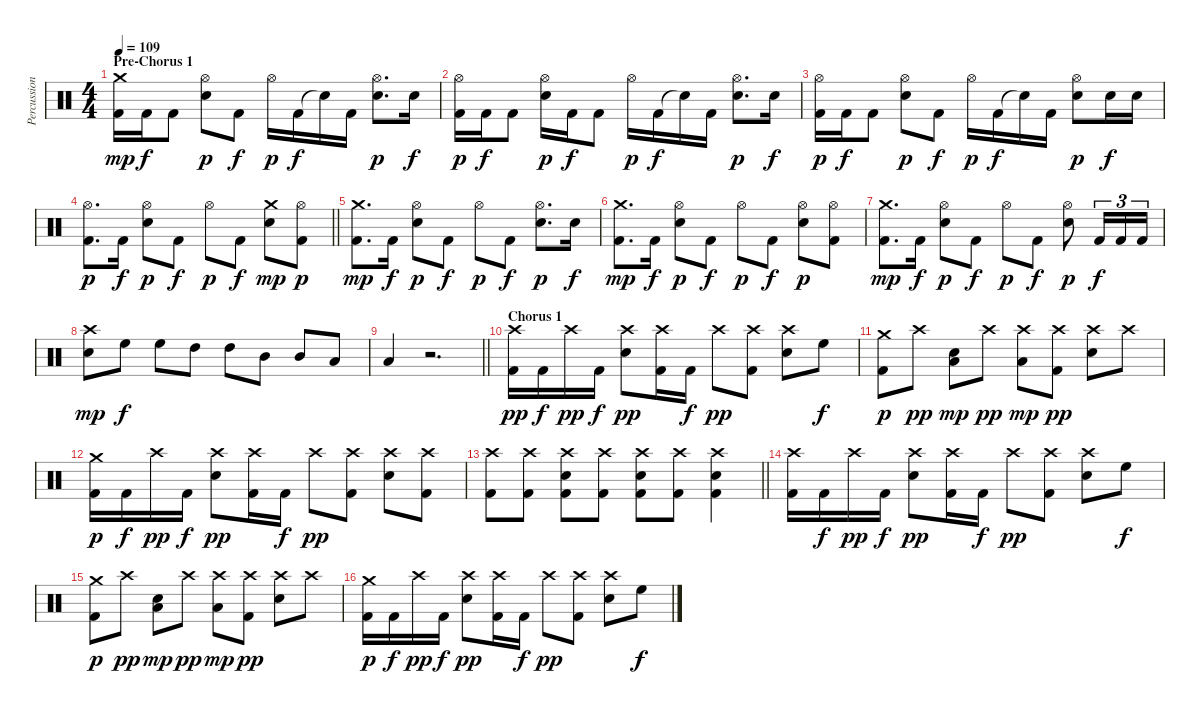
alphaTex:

\track ("Percussions" "Percussion") {instrument percussion}
\staff {score}
\articulation defaults
\ts (4 4)
\section ("" "Pre-Chorus 1")
\tempo 109
\clef neutral
\ks c
("Crash medium (hit)" "Kick (hit) 2").16{dy mp} "Kick (hit) 2".16{dy f} "Kick (hit) 2".8 ("Hi-Hat (open)" "Electric Snare (hit)").8{dy p} "Kick (hit) 2".8{dy f} "Hi-Hat (open)".16{dy p} "Kick (hit) 2".16{dy f} "Snare (hit)"{t}.16 "Kick (hit) 2".16 ("Hi-Hat (open)" "Electric Snare (hit)").8{d dy p} "Electric Snare (hit)".16{dy f} |
("Hi-Hat (open)" "Kick (hit) 2").16{dy p} "Kick (hit) 2".16{dy f} "Kick (hit) 2".8 ("Hi-Hat (open)" "Electric Snare (hit)").16{dy p} "Kick (hit) 2".16{dy f} "Kick (hit) 2".8 "Hi-Hat (open)".16{dy p} "Kick (hit) 2".16{dy f} "Snare (hit)"{t}.16 "Kick (hit) 2".16 ("Hi-Hat (open)" "Electric Snare (hit)").8{d dy p} "Electric Snare (hit)".16{dy f} |
("Hi-Hat (open)" "Kick (hit) 2").16{dy p} "Kick (hit) 2".16{dy f} "Kick (hit) 2".8 ("Hi-Hat (open)" "Electric Snare (hit)").8{dy p} "Kick (hit) 2".8{dy f} "Hi-Hat (open)".16{dy p} "Kick (hit) 2".16{dy f} "Snare (hit)"{t}.16 "Kick (hit) 2".16 ("Hi-Hat (open)" "Electric Snare (hit)").8{dy p} "Electric Snare (hit)".16{dy f} "Electric Snare (hit)".16 |
\barLineRight lightlight
("Hi-Hat (open)" "Kick (hit) 2").8{d dy p} "Kick (hit) 2".16{dy f} ("Hi-Hat (open)" "Electric Snare (hit)").8{dy p} "Kick (hit) 2".8{dy f} "Hi-Hat (open)".8{dy p} "Kick (hit) 2".8{dy f} ("Crash medium (hit)" "Electric Snare (hit)").8{dy mp} ("Hi-Hat (open)" "Kick (hit) 2").8{dy p} |
("Crash medium (hit)" "Kick (hit) 2").8{d dy mp} "Kick (hit) 2".16{dy f} ("Hi-Hat (open)" "Electric Snare (hit)").8{dy p} "Kick (hit) 2".8{dy f} "Hi-Hat (open)".8{dy p} "Kick (hit) 2".8{dy f} ("Hi-Hat (open)" "Electric Snare (hit)").8{d dy p} "Electric Snare (hit)".16{dy f} |
("Crash medium (hit)" "Kick (hit) 2").8{d dy mp} "Kick (hit) 2".16{dy f} ("Hi-Hat (open)" "Electric Snare (hit)").8{dy p} "Kick (hit) 2".8{dy f} "Hi-Hat (open)".8{dy p} "Kick (hit) 2".8{dy f} ("Hi-Hat (open)" "Electric Snare (hit)").8{dy p} ("Hi-Hat (open)" "Kick (hit) 2").8 |
("Crash medium (hit)" "Kick (hit) 2").8{d dy mp} "Kick (hit) 2".16{dy f} ("Hi-Hat (open)" "Electric Snare (hit)").8{dy p} "Kick (hit) 2".8{dy f} "Hi-Hat (open)".8{dy p} "Kick (hit) 2".8{dy f} ("Hi-Hat (open)" "Electric Snare (hit)").8{dy p} "Kick (hit) 2".16{tu (3 2) dy f} "Kick (hit) 2".16{tu (3 2)} "Kick (hit) 2".16{tu (3 2)} |
("Crash high (hit)" "Electric Snare (hit)").8{dy mp} "High Floor Tom (hit)".8{dy f} "High Floor Tom (hit)".8 "High Tom (hit)".8 "High Tom (hit)".8 "Mid Tom (hit)".8 "Mid Tom (hit)".8 "Low Tom (hit)".8 |
\barLineRight lightlight "Low Tom (hit)".4
r.2{d} |
\section ("" "Chorus 1")
("Crash high (hit)" "Kick (hit) 2").16{dy pp} "Kick (hit) 2".16{dy f} "Crash high (hit)".16{dy pp} "Kick (hit) 2".16{dy f} ("Crash high (hit)" "Electric Snare (hit)").8{dy pp} ("Crash high (hit)" "Kick (hit) 2").16 "Kick (hit) 2".16{dy f} "Crash high (hit)".8{dy pp} ("Crash high (hit)" "Kick (hit) 2").8 ("Crash high (hit)" "Electric Snare (hit)").8 "High Floor Tom (hit)".8{dy f} |
("Crash medium (hit)" "Kick (hit) 2").8{dy p} "Crash high (hit)".8{dy pp} ("Low Floor Tom (hit)" "Electric Snare (hit)").8{dy mp} "Crash high (hit)".8{dy pp} ("Crash high (hit)" "Low Floor Tom (hit)").8{dy mp} ("Crash high (hit)" "Kick (hit) 2").8{dy pp} ("Crash high (hit)" "Electric Snare (hit)").8 "Crash high (hit)".8 |
("Crash medium (hit)" "Kick (hit) 2").16{dy p} "Kick (hit) 2".16{dy f} "Crash high (hit)".16{dy pp} "Kick (hit) 2".16{dy f} ("Crash high (hit)" "Electric Snare (hit)").8{dy pp} ("Crash high (hit)" "Kick (hit) 2").16 "Kick (hit) 2".16{dy f} "Crash high (hit)".8{dy pp} ("Crash high (hit)" "Kick (hit) 2").8 ("Crash high (hit)" "Electric Snare (hit)").8 ("Crash high (hit)" "Kick (hit) 2").8 |
\barLineRight lightlight
("Crash high (hit)" "Kick (hit) 2").8 ("Crash high (hit)" "Kick (hit) 2").8 ("Crash high (hit)" "Electric Snare (hit)" "Kick (hit) 2").8 ("Crash high (hit)" "Kick (hit) 2").8 ("Crash high (hit)" "Electric Snare (hit)" "Kick (hit) 2").8 ("Crash high (hit)" "Kick (hit) 2").8 ("Crash high (hit)" "Electric Snare (hit)" "Kick (hit) 2").4 |
("Crash high (hit)" "Kick (hit) 2").16 "Kick (hit) 2".16{dy f} "Crash high (hit)".16{dy pp} "Kick (hit) 2".16{dy f} ("Crash high (hit)" "Electric Snare (hit)").8{dy pp} ("Crash high (hit)" "Kick (hit) 2").16 "Kick (hit) 2".16{dy f} "Crash high (hit)".8{dy pp} ("Crash high (hit)" "Kick (hit) 2").8 ("Crash high (hit)" "Electric Snare (hit)").8 "High Floor Tom (hit)".8{dy f} |
("Crash medium (hit)" "Kick (hit) 2").8{dy p} "Crash high (hit)".8{dy pp} ("Low Floor Tom (hit)" "Electric Snare (hit)").8{dy mp} "Crash high (hit)".8{dy pp} ("Crash high (hit)" "Low Floor Tom (hit)").8{dy mp} ("Crash high (hit)" "Kick (hit) 2").8{dy pp} ("Crash high (hit)" "Electric Snare (hit)").8 "Crash high (hit)".8 |
("Crash medium (hit)" "Kick (hit) 2").16{dy p} "Kick (hit) 2".16{dy f} "Crash high (hit)".16{dy pp} "Kick (hit) 2".16{dy f} ("Crash high (hit)" "Electric Snare (hit)").8{dy pp} ("Crash high (hit)" "Kick (hit) 2").16 "Kick (hit) 2".16{dy f} "Crash high (hit)".8{dy pp} ("Crash high (hit)" "Kick (hit) 2").8 ("Crash high (hit)" "Electric Snare (hit)").8 "High Floor Tom (hit)".8{dy f}
